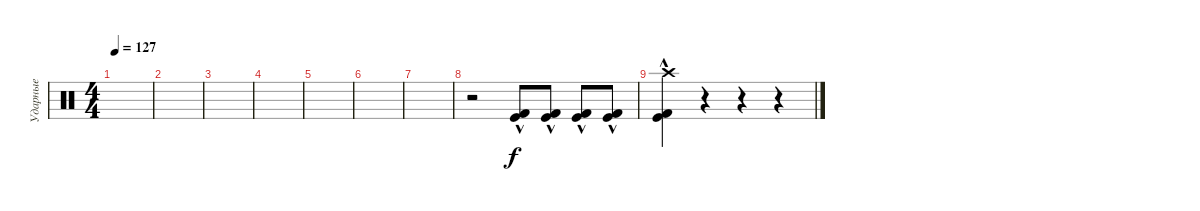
\track ("Ударные" "Ударные") {instrument percussion}
\staff {score}
\articulation defaults
\ts (4 4)
\tempo 127
\clef neutral
\ks c
|
|
|
|
|
|
|
r.2 ("Kick (hit) 2"{hac} "Kick (hit)"{hac}).8 ("Kick (hit) 2"{hac} "Kick (hit)"{hac}).8 ("Kick (hit) 2"{hac} "Kick (hit)"{hac}).8 ("Kick (hit) 2"{hac} "Kick (hit)"{hac}).8 |
("Kick (hit) 2"{hac} "Kick (hit)"{hac} "Crash high (hit)"{hac}).4 r.4 r.4 r.4
